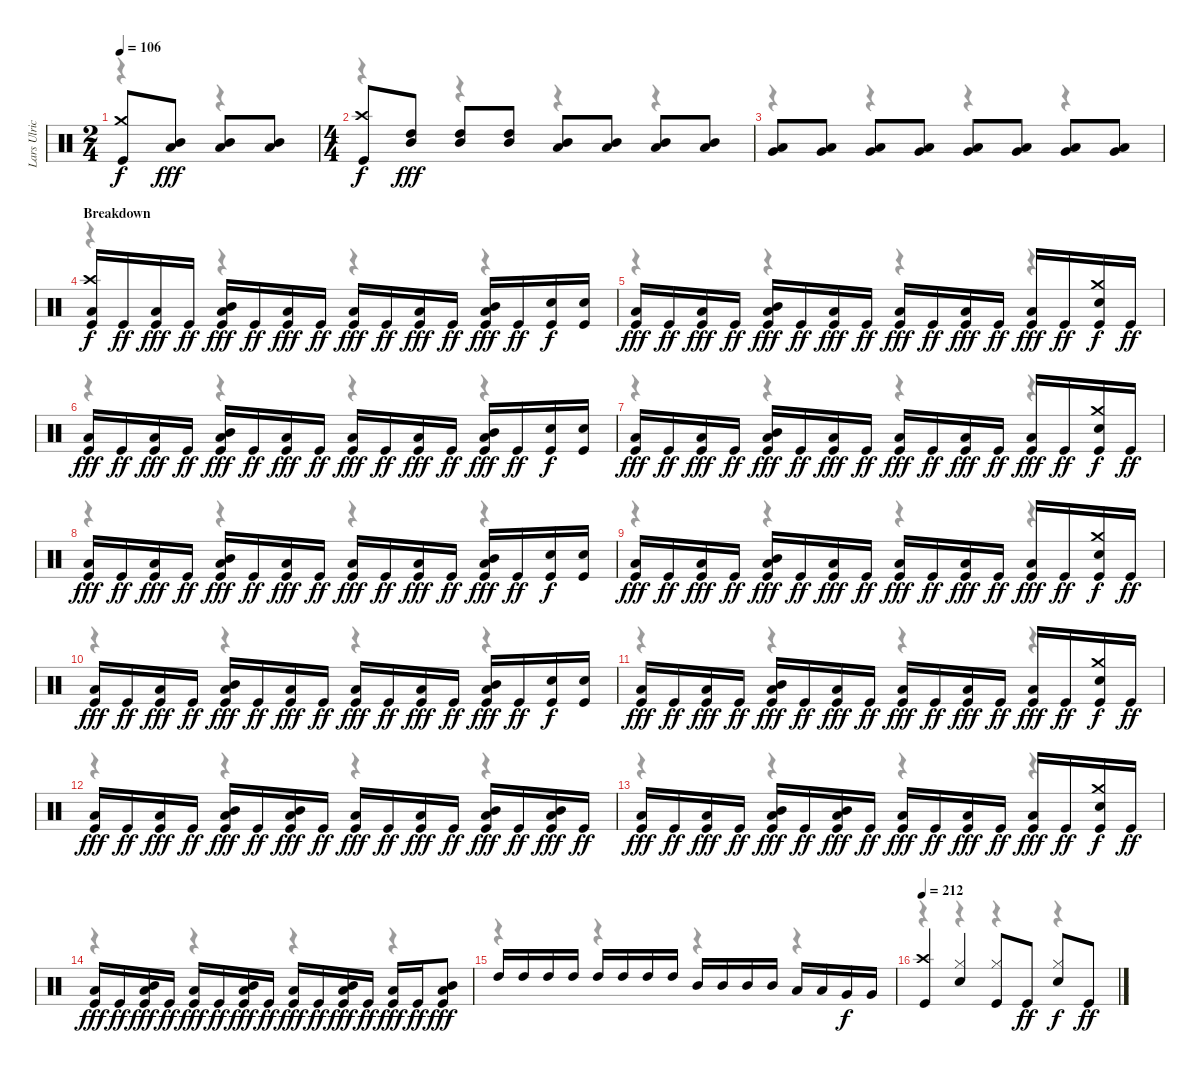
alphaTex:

\track ("Lars Ulrich" "Lars Ulric") {instrument percussion}
\staff {score}
\articulation defaults
\voice
\ts (2 4)
\tempo 106
\clef neutral
\ks c
("Crash medium (hit)" "Kick (hit)").8{dy f} ("Mid Tom (hit)" "Low Tom (hit)").8{dy fff} ("Mid Tom (hit)" "Low Tom (hit)").8 ("Mid Tom (hit)" "Low Tom (hit)").8 |
\ts (4 4)
("Crash high (hit)" "Kick (hit)").8{dy f} ("High Tom (hit)" "Mid Tom (hit)").8{dy fff} ("High Tom (hit)" "Mid Tom (hit)").8 ("High Tom (hit)" "Mid Tom (hit)").8 ("Mid Tom (hit)" "Low Tom (hit)").8 ("Mid Tom (hit)" "Low Tom (hit)").8 ("Mid Tom (hit)" "Low Tom (hit)").8 ("Mid Tom (hit)" "Low Tom (hit)").8 |
("Low Tom (hit)" "Very Low Tom (hit)").8 ("Low Tom (hit)" "Very Low Tom (hit)").8 ("Low Tom (hit)" "Very Low Tom (hit)").8 ("Low Tom (hit)" "Very Low Tom (hit)").8 ("Low Tom (hit)" "Very Low Tom (hit)").8 ("Low Tom (hit)" "Very Low Tom (hit)").8 ("Low Tom (hit)" "Very Low Tom (hit)").8 ("Low Tom (hit)" "Very Low Tom (hit)").8 |
\section ("" "Breakdown")
("Crash high (hit)" "Low Tom (hit)" "Kick (hit)").16{dy f} "Kick (hit)".16{dy ff} ("Low Tom (hit)" "Kick (hit)").16{dy fff} "Kick (hit)".16{dy ff} ("Mid Tom (hit)" "Low Tom (hit)" "Kick (hit)").16{dy fff} "Kick (hit)".16{dy ff} ("Low Tom (hit)" "Kick (hit)").16{dy fff} "Kick (hit)".16{dy ff} ("Low Tom (hit)" "Kick (hit)").16{dy fff} "Kick (hit)".16{dy ff} ("Low Tom (hit)" "Kick (hit)").16{dy fff} "Kick (hit)".16{dy ff} ("Mid Tom (hit)" "Low Tom (hit)" "Kick (hit)").16{dy fff} "Kick (hit)".16{dy ff} ("Snare (hit) 2" "Kick (hit)").16{dy f} ("Snare (hit) 2" "Kick (hit)").16 |
("Low Tom (hit)" "Kick (hit)").16{dy fff} "Kick (hit)".16{dy ff} ("Low Tom (hit)" "Kick (hit)").16{dy fff} "Kick (hit)".16{dy ff} ("Mid Tom (hit)" "Low Tom (hit)" "Kick (hit)").16{dy fff} "Kick (hit)".16{dy ff} ("Low Tom (hit)" "Kick (hit)").16{dy fff} "Kick (hit)".16{dy ff} ("Low Tom (hit)" "Kick (hit)").16{dy fff} "Kick (hit)".16{dy ff} ("Low Tom (hit)" "Kick (hit)").16{dy fff} "Kick (hit)".16{dy ff} ("Low Tom (hit)" "Kick (hit)").16{dy fff} "Kick (hit)".16{dy ff} ("Crash medium (hit)" "Snare (hit) 2" "Kick (hit)").16{dy f} "Kick (hit)".16{dy ff} |
("Low Tom (hit)" "Kick (hit)").16{dy fff} "Kick (hit)".16{dy ff} ("Low Tom (hit)" "Kick (hit)").16{dy fff} "Kick (hit)".16{dy ff} ("Mid Tom (hit)" "Low Tom (hit)" "Kick (hit)").16{dy fff} "Kick (hit)".16{dy ff} ("Low Tom (hit)" "Kick (hit)").16{dy fff} "Kick (hit)".16{dy ff} ("Low Tom (hit)" "Kick (hit)").16{dy fff} "Kick (hit)".16{dy ff} ("Low Tom (hit)" "Kick (hit)").16{dy fff} "Kick (hit)".16{dy ff} ("Mid Tom (hit)" "Low Tom (hit)" "Kick (hit)").16{dy fff} "Kick (hit)".16{dy ff} ("Snare (hit) 2" "Kick (hit)").16{dy f} ("Snare (hit) 2" "Kick (hit)").16 |
("Low Tom (hit)" "Kick (hit)").16{dy fff} "Kick (hit)".16{dy ff} ("Low Tom (hit)" "Kick (hit)").16{dy fff} "Kick (hit)".16{dy ff} ("Mid Tom (hit)" "Low Tom (hit)" "Kick (hit)").16{dy fff} "Kick (hit)".16{dy ff} ("Low Tom (hit)" "Kick (hit)").16{dy fff} "Kick (hit)".16{dy ff} ("Low Tom (hit)" "Kick (hit)").16{dy fff} "Kick (hit)".16{dy ff} ("Low Tom (hit)" "Kick (hit)").16{dy fff} "Kick (hit)".16{dy ff} ("Low Tom (hit)" "Kick (hit)").16{dy fff} "Kick (hit)".16{dy ff} ("Crash medium (hit)" "Snare (hit) 2" "Kick (hit)").16{dy f} "Kick (hit)".16{dy ff} |
("Low Tom (hit)" "Kick (hit)").16{dy fff} "Kick (hit)".16{dy ff} ("Low Tom (hit)" "Kick (hit)").16{dy fff} "Kick (hit)".16{dy ff} ("Mid Tom (hit)" "Low Tom (hit)" "Kick (hit)").16{dy fff} "Kick (hit)".16{dy ff} ("Low Tom (hit)" "Kick (hit)").16{dy fff} "Kick (hit)".16{dy ff} ("Low Tom (hit)" "Kick (hit)").16{dy fff} "Kick (hit)".16{dy ff} ("Low Tom (hit)" "Kick (hit)").16{dy fff} "Kick (hit)".16{dy ff} ("Mid Tom (hit)" "Low Tom (hit)" "Kick (hit)").16{dy fff} "Kick (hit)".16{dy ff} ("Snare (hit) 2" "Kick (hit)").16{dy f} ("Snare (hit) 2" "Kick (hit)").16 |
("Low Tom (hit)" "Kick (hit)").16{dy fff} "Kick (hit)".16{dy ff} ("Low Tom (hit)" "Kick (hit)").16{dy fff} "Kick (hit)".16{dy ff} ("Mid Tom (hit)" "Low Tom (hit)" "Kick (hit)").16{dy fff} "Kick (hit)".16{dy ff} ("Low Tom (hit)" "Kick (hit)").16{dy fff} "Kick (hit)".16{dy ff} ("Low Tom (hit)" "Kick (hit)").16{dy fff} "Kick (hit)".16{dy ff} ("Low Tom (hit)" "Kick (hit)").16{dy fff} "Kick (hit)".16{dy ff} ("Low Tom (hit)" "Kick (hit)").16{dy fff} "Kick (hit)".16{dy ff} ("Crash medium (hit)" "Snare (hit) 2" "Kick (hit)").16{dy f} "Kick (hit)".16{dy ff} |
("Low Tom (hit)" "Kick (hit)").16{dy fff} "Kick (hit)".16{dy ff} ("Low Tom (hit)" "Kick (hit)").16{dy fff} "Kick (hit)".16{dy ff} ("Mid Tom (hit)" "Low Tom (hit)" "Kick (hit)").16{dy fff} "Kick (hit)".16{dy ff} ("Low Tom (hit)" "Kick (hit)").16{dy fff} "Kick (hit)".16{dy ff} ("Low Tom (hit)" "Kick (hit)").16{dy fff} "Kick (hit)".16{dy ff} ("Low Tom (hit)" "Kick (hit)").16{dy fff} "Kick (hit)".16{dy ff} ("Mid Tom (hit)" "Low Tom (hit)" "Kick (hit)").16{dy fff} "Kick (hit)".16{dy ff} ("Snare (hit) 2" "Kick (hit)").16{dy f} ("Snare (hit) 2" "Kick (hit)").16 |
("Low Tom (hit)" "Kick (hit)").16{dy fff} "Kick (hit)".16{dy ff} ("Low Tom (hit)" "Kick (hit)").16{dy fff} "Kick (hit)".16{dy ff} ("Mid Tom (hit)" "Low Tom (hit)" "Kick (hit)").16{dy fff} "Kick (hit)".16{dy ff} ("Low Tom (hit)" "Kick (hit)").16{dy fff} "Kick (hit)".16{dy ff} ("Low Tom (hit)" "Kick (hit)").16{dy fff} "Kick (hit)".16{dy ff} ("Low Tom (hit)" "Kick (hit)").16{dy fff} "Kick (hit)".16{dy ff} ("Low Tom (hit)" "Kick (hit)").16{dy fff} "Kick (hit)".16{dy ff} ("Crash medium (hit)" "Snare (hit) 2" "Kick (hit)").16{dy f} "Kick (hit)".16{dy ff} |
("Low Tom (hit)" "Kick (hit)").16{dy fff} "Kick (hit)".16{dy ff} ("Low Tom (hit)" "Kick (hit)").16{dy fff} "Kick (hit)".16{dy ff} ("Mid Tom (hit)" "Low Tom (hit)" "Kick (hit)").16{dy fff} "Kick (hit)".16{dy ff} ("Mid Tom (hit)" "Low Tom (hit)" "Kick (hit)").16{dy fff} "Kick (hit)".16{dy ff} ("Low Tom (hit)" "Kick (hit)").16{dy fff} "Kick (hit)".16{dy ff} ("Low Tom (hit)" "Kick (hit)").16{dy fff} "Kick (hit)".16{dy ff} ("Mid Tom (hit)" "Low Tom (hit)" "Kick (hit)").16{dy fff} "Kick (hit)".16{dy ff} ("Mid Tom (hit)" "Low Tom (hit)" "Kick (hit)").16{dy fff} "Kick (hit)".16{dy ff} |
("Low Tom (hit)" "Kick (hit)").16{dy fff} "Kick (hit)".16{dy ff} ("Low Tom (hit)" "Kick (hit)").16{dy fff} "Kick (hit)".16{dy ff} ("Mid Tom (hit)" "Low Tom (hit)" "Kick (hit)").16{dy fff} "Kick (hit)".16{dy ff} ("Mid Tom (hit)" "Low Tom (hit)" "Kick (hit)").16{dy fff} "Kick (hit)".16{dy ff} ("Low Tom (hit)" "Kick (hit)").16{dy fff} "Kick (hit)".16{dy ff} ("Low Tom (hit)" "Kick (hit)").16{dy fff} "Kick (hit)".16{dy ff} ("Low Tom (hit)" "Kick (hit)").16{dy fff} "Kick (hit)".16{dy ff} ("Crash medium (hit)" "Snare (hit) 2" "Kick (hit)").16{dy f} "Kick (hit)".16{dy ff} |
("Low Tom (hit)" "Kick (hit)").16{dy fff} "Kick (hit)".16{dy ff} ("Mid Tom (hit)" "Low Tom (hit)" "Kick (hit)").16{dy fff} "Kick (hit)".16{dy ff} ("Low Tom (hit)" "Kick (hit)").16{dy fff} "Kick (hit)".16{dy ff} ("Mid Tom (hit)" "Low Tom (hit)" "Kick (hit)").16{dy fff} "Kick (hit)".16{dy ff} ("Low Tom (hit)" "Kick (hit)").16{dy fff} "Kick (hit)".16{dy ff} ("Mid Tom (hit)" "Low Tom (hit)" "Kick (hit)").16{dy fff} "Kick (hit)".16{dy ff} ("Low Tom (hit)" "Kick (hit)").16{dy fff} "Kick (hit)".16{dy ff} ("Mid Tom (hit)" "Low Tom (hit)" "Kick (hit)").8{dy fff} |
"High Tom (hit)".16 "High Tom (hit)".16 "High Tom (hit)".16 "High Tom (hit)".16 "High Tom (hit)".16 "High Tom (hit)".16 "High Tom (hit)".16 "High Tom (hit)".16 "Mid Tom (hit)".16 "Mid Tom (hit)".16 "Mid Tom (hit)".16 "Mid Tom (hit)".16 "Low Tom (hit)".16 "Low Tom (hit)".16 "Very Low Tom (hit)".16{dy f} "Very Low Tom (hit)".16 |
\tempo 212
("Crash high (hit)" "Kick (hit)").4 ("Hi-Hat (closed)" "Snare (hit) 2").4 ("Hi-Hat (closed)" "Kick (hit)").8 "Kick (hit)".8{dy ff} ("Hi-Hat (closed)" "Snare (hit) 2").8{dy f} "Kick (hit)".8{dy ff}
\voice
\clef neutral
\ottava regular
\simile none
\ks c
r.4{dy f} r.4 |
r.4 r.4 r.4 r.4 |
r.4 r.4 r.4 r.4 |
r.4 r.4 r.4 r.4 |
r.4 r.4 r.4 r.4 |
r.4 r.4 r.4 r.4 |
r.4 r.4 r.4 r.4 |
r.4 r.4 r.4 r.4 |
r.4 r.4 r.4 r.4 |
r.4 r.4 r.4 r.4 |
r.4 r.4 r.4 r.4 |
r.4 r.4 r.4 r.4 |
r.4 r.4 r.4 r.4 |
r.4 r.4 r.4 r.4 |
r.4 r.4 r.4 r.4 |
r.4 r.4 r.4 r.4
